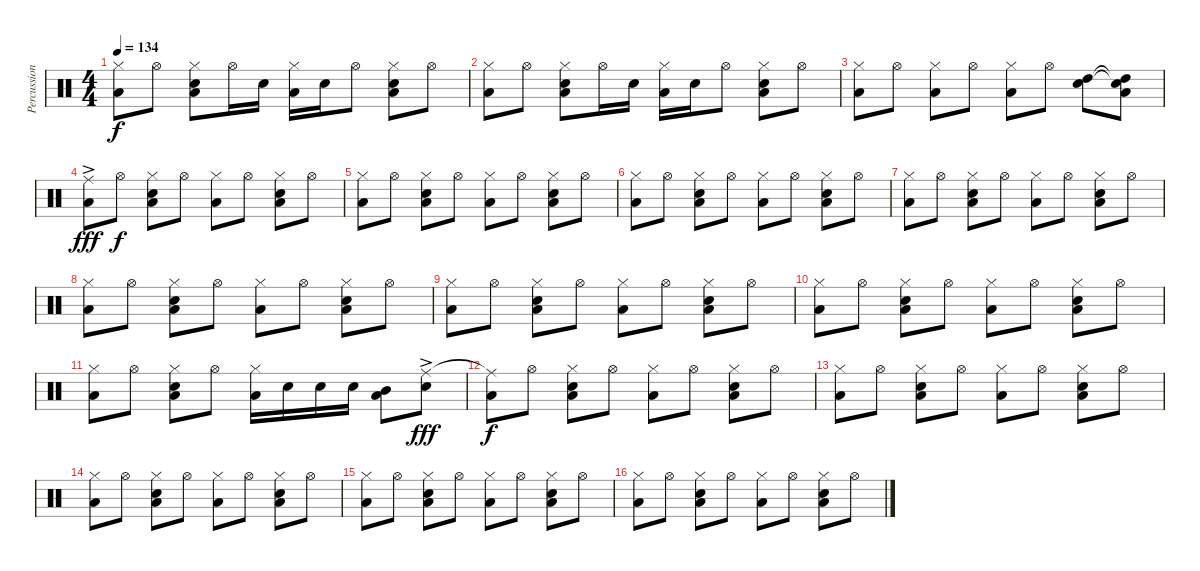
\track ("Percussion" "Percussion") {instrument percussion}
\staff {score}
\articulation defaults
\ts (4 4)
\tempo 134
\clef neutral
\ks c
("Hi-Hat (closed)" "Low Floor Tom (hit)").8{dy f} "Hi-Hat (open)".8 ("Hi-Hat (closed)" "Snare (hit) 2" "Low Floor Tom (hit)").8 "Hi-Hat (open)".16 "Snare (hit) 2".16 ("Hi-Hat (closed)" "Low Floor Tom (hit)").16 "Snare (hit) 2".16 "Hi-Hat (open)".8 ("Hi-Hat (closed)" "Snare (hit) 2" "Low Floor Tom (hit)").8 "Hi-Hat (open)".8 |
("Hi-Hat (closed)" "Low Floor Tom (hit)").8 "Hi-Hat (open)".8 ("Hi-Hat (closed)" "Snare (hit) 2" "Low Floor Tom (hit)").8 "Hi-Hat (open)".16 "Snare (hit) 2".16 ("Hi-Hat (closed)" "Low Floor Tom (hit)").16 "Snare (hit) 2".16 "Hi-Hat (open)".8 ("Hi-Hat (closed)" "Snare (hit) 2" "Low Floor Tom (hit)").8 "Hi-Hat (open)".8 |
("Hi-Hat (closed)" "Low Floor Tom (hit)").8 "Hi-Hat (open)".8 ("Hi-Hat (closed)" "Low Floor Tom (hit)").8 "Hi-Hat (open)".8 ("Hi-Hat (closed)" "Low Floor Tom (hit)").8 "Hi-Hat (open)".8 ("High Tom (hit)" "Snare (hit) 2").8 ("High Tom (hit)"{t} "Snare (hit) 2"{t} "Low Floor Tom (hit)").8 |
("Ride (middle)"{ac} "Low Floor Tom (hit)").8{dy fff} "Hi-Hat (open)".8{dy f} ("Hi-Hat (closed)" "Snare (hit) 2" "Low Floor Tom (hit)").8 "Hi-Hat (open)".8 ("Hi-Hat (closed)" "Low Floor Tom (hit)").8 "Hi-Hat (open)".8 ("Hi-Hat (closed)" "Snare (hit) 2" "Low Floor Tom (hit)").8 "Hi-Hat (open)".8 |
("Hi-Hat (closed)" "Low Floor Tom (hit)").8 "Hi-Hat (open)".8 ("Hi-Hat (closed)" "Snare (hit) 2" "Low Floor Tom (hit)").8 "Hi-Hat (open)".8 ("Hi-Hat (closed)" "Low Floor Tom (hit)").8 "Hi-Hat (open)".8 ("Hi-Hat (closed)" "Snare (hit) 2" "Low Floor Tom (hit)").8 "Hi-Hat (open)".8 |
("Hi-Hat (closed)" "Low Floor Tom (hit)").8 "Hi-Hat (open)".8 ("Hi-Hat (closed)" "Snare (hit) 2" "Low Floor Tom (hit)").8 "Hi-Hat (open)".8 ("Hi-Hat (closed)" "Low Floor Tom (hit)").8 "Hi-Hat (open)".8 ("Hi-Hat (closed)" "Snare (hit) 2" "Low Floor Tom (hit)").8 "Hi-Hat (open)".8 |
("Hi-Hat (closed)" "Low Floor Tom (hit)").8 "Hi-Hat (open)".8 ("Hi-Hat (closed)" "Snare (hit) 2" "Low Floor Tom (hit)").8 "Hi-Hat (open)".8 ("Hi-Hat (closed)" "Low Floor Tom (hit)").8 "Hi-Hat (open)".8 ("Hi-Hat (closed)" "Snare (hit) 2" "Low Floor Tom (hit)").8 "Hi-Hat (open)".8 |
("Hi-Hat (closed)" "Low Floor Tom (hit)").8 "Hi-Hat (open)".8 ("Hi-Hat (closed)" "Snare (hit) 2" "Low Floor Tom (hit)").8 "Hi-Hat (open)".8 ("Hi-Hat (closed)" "Low Floor Tom (hit)").8 "Hi-Hat (open)".8 ("Hi-Hat (closed)" "Snare (hit) 2" "Low Floor Tom (hit)").8 "Hi-Hat (open)".8 |
("Hi-Hat (closed)" "Low Floor Tom (hit)").8 "Hi-Hat (open)".8 ("Hi-Hat (closed)" "Snare (hit) 2" "Low Floor Tom (hit)").8 "Hi-Hat (open)".8 ("Hi-Hat (closed)" "Low Floor Tom (hit)").8 "Hi-Hat (open)".8 ("Hi-Hat (closed)" "Snare (hit) 2" "Low Floor Tom (hit)").8 "Hi-Hat (open)".8 |
("Hi-Hat (closed)" "Low Floor Tom (hit)").8 "Hi-Hat (open)".8 ("Hi-Hat (closed)" "Snare (hit) 2" "Low Floor Tom (hit)").8 "Hi-Hat (open)".8 ("Hi-Hat (closed)" "Low Floor Tom (hit)").8 "Hi-Hat (open)".8 ("Hi-Hat (closed)" "Snare (hit) 2" "Low Floor Tom (hit)").8 "Hi-Hat (open)".8 |
("Hi-Hat (closed)" "Low Floor Tom (hit)").8 "Hi-Hat (open)".8 ("Hi-Hat (closed)" "Snare (hit) 2" "Low Floor Tom (hit)").8 "Hi-Hat (open)".8 ("Hi-Hat (closed)" "Low Floor Tom (hit)").16 "Snare (hit) 2".16 "Snare (hit) 2".16 "Snare (hit) 2".16 ("Mid Tom (hit)" "Low Floor Tom (hit)").8 ("Ride (middle)"{ac} "Snare (hit) 2").8{dy fff} |
("Ride (middle)"{t} "Low Floor Tom (hit)").8{dy f} "Hi-Hat (open)".8 ("Hi-Hat (closed)" "Snare (hit) 2" "Low Floor Tom (hit)").8 "Hi-Hat (open)".8 ("Hi-Hat (closed)" "Low Floor Tom (hit)").8 "Hi-Hat (open)".8 ("Hi-Hat (closed)" "Snare (hit) 2" "Low Floor Tom (hit)").8 "Hi-Hat (open)".8 |
("Hi-Hat (closed)" "Low Floor Tom (hit)").8 "Hi-Hat (open)".8 ("Hi-Hat (closed)" "Snare (hit) 2" "Low Floor Tom (hit)").8 "Hi-Hat (open)".8 ("Hi-Hat (closed)" "Low Floor Tom (hit)").8 "Hi-Hat (open)".8 ("Hi-Hat (closed)" "Snare (hit) 2" "Low Floor Tom (hit)").8 "Hi-Hat (open)".8 |
("Hi-Hat (closed)" "Low Floor Tom (hit)").8 "Hi-Hat (open)".8 ("Hi-Hat (closed)" "Snare (hit) 2" "Low Floor Tom (hit)").8 "Hi-Hat (open)".8 ("Hi-Hat (closed)" "Low Floor Tom (hit)").8 "Hi-Hat (open)".8 ("Hi-Hat (closed)" "Snare (hit) 2" "Low Floor Tom (hit)").8 "Hi-Hat (open)".8 |
("Hi-Hat (closed)" "Low Floor Tom (hit)").8 "Hi-Hat (open)".8 ("Hi-Hat (closed)" "Snare (hit) 2" "Low Floor Tom (hit)").8 "Hi-Hat (open)".8 ("Hi-Hat (closed)" "Low Floor Tom (hit)").8 "Hi-Hat (open)".8 ("Hi-Hat (closed)" "Snare (hit) 2" "Low Floor Tom (hit)").8 "Hi-Hat (open)".8 |
("Hi-Hat (closed)" "Low Floor Tom (hit)").8 "Hi-Hat (open)".8 ("Hi-Hat (closed)" "Snare (hit) 2" "Low Floor Tom (hit)").8 "Hi-Hat (open)".8 ("Hi-Hat (closed)" "Low Floor Tom (hit)").8 "Hi-Hat (open)".8 ("Hi-Hat (closed)" "Snare (hit) 2" "Low Floor Tom (hit)").8 "Hi-Hat (open)".8
